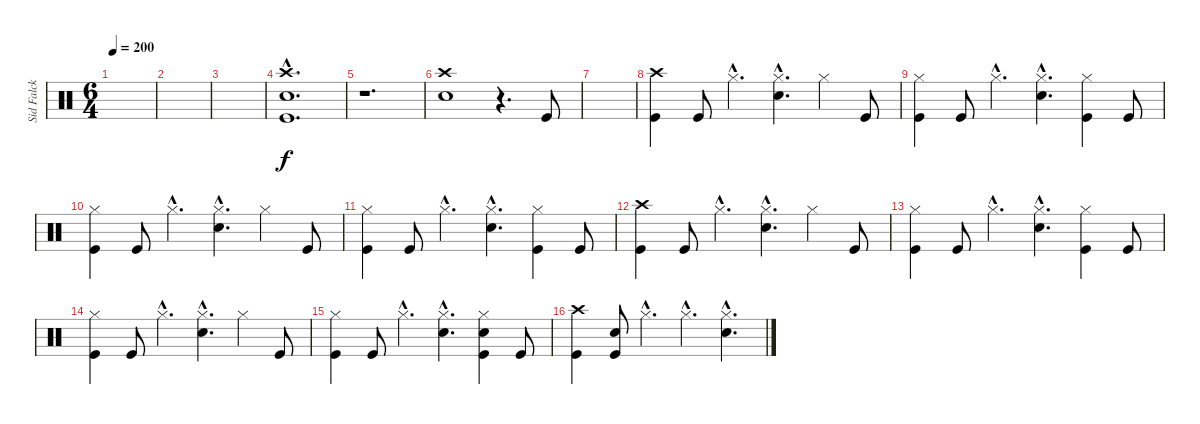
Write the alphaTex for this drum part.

\track ("Sid Falck - drums" "Sid Falck ") {instrument percussion}
\staff {score}
\articulation defaults
\ts (6 4)
\tempo 200
\clef neutral
\ks c
|
|
|
("Crash high (hit)"{hac} "Electric Snare (hit)"{hac} "Kick (hit)"{hac}).1{d} |
r.1{d} |
("Crash high (hit)" "Electric Snare (hit)").1 r.4{d} "Kick (hit)".8 |
|
("Crash high (hit)" "Kick (hit)").4 "Kick (hit)".8 "Hi-Hat (closed)"{hac}.4{d} ("Hi-Hat (closed)"{hac} "Electric Snare (hit)"{hac}).4{d} "Hi-Hat (closed)".4 "Kick (hit)".8 |
("Hi-Hat (closed)" "Kick (hit)").4 "Kick (hit)".8 "Hi-Hat (closed)"{hac}.4{d} ("Hi-Hat (closed)"{hac} "Electric Snare (hit)"{hac}).4{d} ("Hi-Hat (closed)" "Kick (hit)").4 "Kick (hit)".8 |
("Hi-Hat (closed)" "Kick (hit)").4 "Kick (hit)".8 "Hi-Hat (closed)"{hac}.4{d} ("Hi-Hat (closed)"{hac} "Electric Snare (hit)"{hac}).4{d} "Hi-Hat (closed)".4 "Kick (hit)".8 |
("Hi-Hat (closed)" "Kick (hit)").4 "Kick (hit)".8 "Hi-Hat (closed)"{hac}.4{d} ("Hi-Hat (closed)"{hac} "Electric Snare (hit)"{hac}).4{d} ("Hi-Hat (closed)" "Kick (hit)").4 "Kick (hit)".8 |
("Crash high (hit)" "Kick (hit)").4 "Kick (hit)".8 "Hi-Hat (closed)"{hac}.4{d} ("Hi-Hat (closed)"{hac} "Electric Snare (hit)"{hac}).4{d} "Hi-Hat (closed)".4 "Kick (hit)".8 |
("Hi-Hat (closed)" "Kick (hit)").4 "Kick (hit)".8 "Hi-Hat (closed)"{hac}.4{d} ("Hi-Hat (closed)"{hac} "Electric Snare (hit)"{hac}).4{d} ("Hi-Hat (closed)" "Kick (hit)").4 "Kick (hit)".8 |
("Hi-Hat (closed)" "Kick (hit)").4 "Kick (hit)".8 "Hi-Hat (closed)"{hac}.4{d} ("Hi-Hat (closed)"{hac} "Electric Snare (hit)"{hac}).4{d} "Hi-Hat (closed)".4 "Kick (hit)".8 |
("Hi-Hat (closed)" "Kick (hit)").4 "Kick (hit)".8 "Hi-Hat (closed)"{hac}.4{d} ("Hi-Hat (closed)"{hac} "Electric Snare (hit)"{hac}).4{d} ("Hi-Hat (closed)" "Electric Snare (hit)" "Kick (hit)").4 "Kick (hit)".8 |
("Crash high (hit)" "Kick (hit)").4 ("Electric Snare (hit)" "Kick (hit)").8 "Hi-Hat (closed)"{hac}.4{d} "Hi-Hat (closed)"{hac}.4{d} ("Hi-Hat (closed)"{hac} "Electric Snare (hit)"{hac}).4{d}
